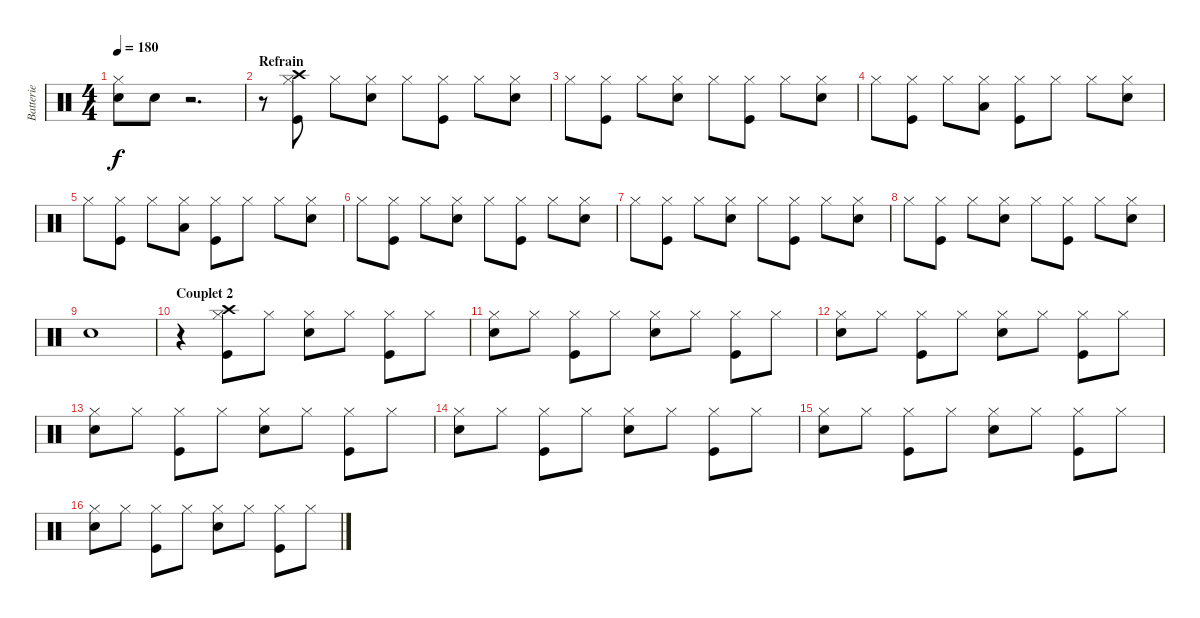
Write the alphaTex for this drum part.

\track ("Batterie" "Batterie") {instrument percussion}
\staff {score}
\articulation defaults
\ts (4 4)
\tempo 180
\clef neutral
\ks c
("Hi-Hat (closed)" "Snare (hit) 2").8{dy f} "Snare (hit) 2".8 r.2{d} |
\section ("" "Refrain")
r.8 ("Crash high (hit)" "Hi-Hat (closed)" "Kick (hit)").8 "Hi-Hat (closed)".8 ("Hi-Hat (closed)" "Snare (hit) 2").8 "Hi-Hat (closed)".8 ("Hi-Hat (closed)" "Kick (hit)").8 "Hi-Hat (closed)".8 ("Hi-Hat (closed)" "Snare (hit) 2").8 |
"Hi-Hat (closed)".8 ("Hi-Hat (closed)" "Kick (hit)").8 "Hi-Hat (closed)".8 ("Hi-Hat (closed)" "Snare (hit) 2").8 "Hi-Hat (closed)".8 ("Hi-Hat (closed)" "Kick (hit)").8 "Hi-Hat (closed)".8 ("Hi-Hat (closed)" "Snare (hit) 2").8 |
"Hi-Hat (closed)".8 ("Hi-Hat (closed)" "Kick (hit)").8 "Hi-Hat (closed)".8 ("Hi-Hat (closed)" "Low Tom (hit)").8 ("Hi-Hat (closed)" "Kick (hit)").8 "Hi-Hat (closed)".8 "Hi-Hat (closed)".8 ("Hi-Hat (closed)" "Snare (hit) 2").8 |
"Hi-Hat (closed)".8 ("Hi-Hat (closed)" "Kick (hit)").8 "Hi-Hat (closed)".8 ("Hi-Hat (closed)" "Low Tom (hit)").8 ("Hi-Hat (closed)" "Kick (hit)").8 "Hi-Hat (closed)".8 "Hi-Hat (closed)".8 ("Hi-Hat (closed)" "Snare (hit) 2").8 |
"Hi-Hat (closed)".8 ("Hi-Hat (closed)" "Kick (hit)").8 "Hi-Hat (closed)".8 ("Hi-Hat (closed)" "Snare (hit) 2").8 "Hi-Hat (closed)".8 ("Hi-Hat (closed)" "Kick (hit)").8 "Hi-Hat (closed)".8 ("Hi-Hat (closed)" "Snare (hit) 2").8 |
"Hi-Hat (closed)".8 ("Hi-Hat (closed)" "Kick (hit)").8 "Hi-Hat (closed)".8 ("Hi-Hat (closed)" "Snare (hit) 2").8 "Hi-Hat (closed)".8 ("Hi-Hat (closed)" "Kick (hit)").8 "Hi-Hat (closed)".8 ("Hi-Hat (closed)" "Snare (hit) 2").8 |
"Hi-Hat (closed)".8 ("Hi-Hat (closed)" "Kick (hit)").8 "Hi-Hat (closed)".8 ("Hi-Hat (closed)" "Snare (hit) 2").8 "Hi-Hat (closed)".8 ("Hi-Hat (closed)" "Kick (hit)").8 "Hi-Hat (closed)".8 ("Hi-Hat (closed)" "Snare (hit) 2").8 |
"Snare (hit) 2".1 |
\section ("" "Couplet 2")
r.4 ("Crash high (hit)" "Hi-Hat (closed)" "Kick (hit)").8 "Hi-Hat (closed)".8 ("Hi-Hat (closed)" "Snare (hit) 2").8 "Hi-Hat (closed)".8 ("Hi-Hat (closed)" "Kick (hit)").8 "Hi-Hat (closed)".8 |
("Hi-Hat (closed)" "Snare (hit) 2").8 "Hi-Hat (closed)".8 ("Hi-Hat (closed)" "Kick (hit)").8 "Hi-Hat (closed)".8 ("Hi-Hat (closed)" "Snare (hit) 2").8 "Hi-Hat (closed)".8 ("Hi-Hat (closed)" "Kick (hit)").8 "Hi-Hat (closed)".8 |
("Hi-Hat (closed)" "Snare (hit) 2").8 "Hi-Hat (closed)".8 ("Hi-Hat (closed)" "Kick (hit)").8 "Hi-Hat (closed)".8 ("Hi-Hat (closed)" "Snare (hit) 2").8 "Hi-Hat (closed)".8 ("Hi-Hat (closed)" "Kick (hit)").8 "Hi-Hat (closed)".8 |
("Hi-Hat (closed)" "Snare (hit) 2").8 "Hi-Hat (closed)".8 ("Hi-Hat (closed)" "Kick (hit)").8 "Hi-Hat (closed)".8 ("Hi-Hat (closed)" "Snare (hit) 2").8 "Hi-Hat (closed)".8 ("Hi-Hat (closed)" "Kick (hit)").8 "Hi-Hat (closed)".8 |
("Hi-Hat (closed)" "Snare (hit) 2").8 "Hi-Hat (closed)".8 ("Hi-Hat (closed)" "Kick (hit)").8 "Hi-Hat (closed)".8 ("Hi-Hat (closed)" "Snare (hit) 2").8 "Hi-Hat (closed)".8 ("Hi-Hat (closed)" "Kick (hit)").8 "Hi-Hat (closed)".8 |
("Hi-Hat (closed)" "Snare (hit) 2").8 "Hi-Hat (closed)".8 ("Hi-Hat (closed)" "Kick (hit)").8 "Hi-Hat (closed)".8 ("Hi-Hat (closed)" "Snare (hit) 2").8 "Hi-Hat (closed)".8 ("Hi-Hat (closed)" "Kick (hit)").8 "Hi-Hat (closed)".8 |
("Hi-Hat (closed)" "Snare (hit) 2").8 "Hi-Hat (closed)".8 ("Hi-Hat (closed)" "Kick (hit)").8 "Hi-Hat (closed)".8 ("Hi-Hat (closed)" "Snare (hit) 2").8 "Hi-Hat (closed)".8 ("Hi-Hat (closed)" "Kick (hit)").8 "Hi-Hat (closed)".8
